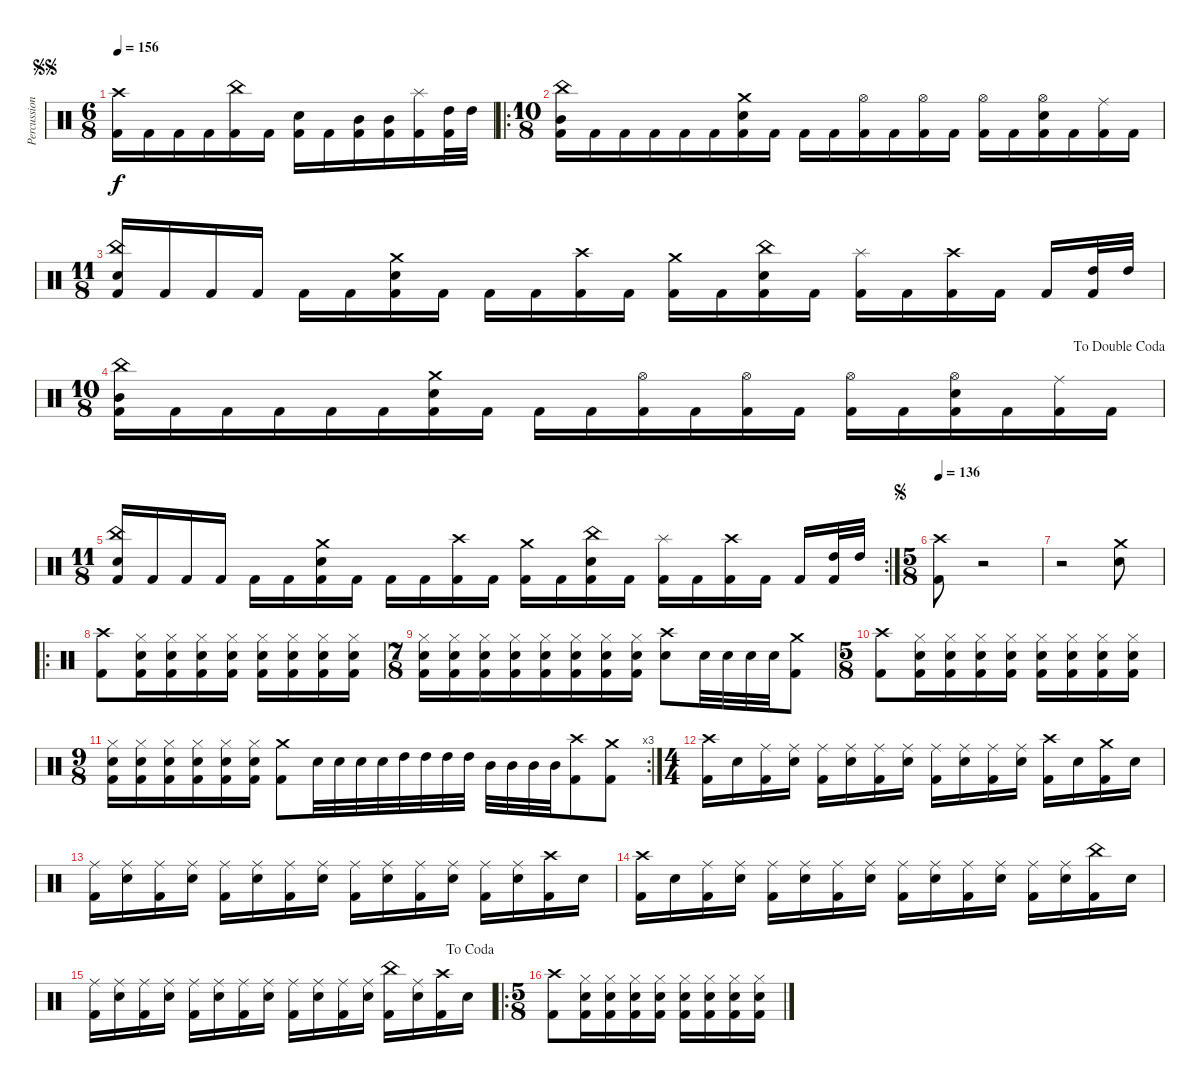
\track ("Percussion" "Percussion") {instrument percussion}
\staff {score}
\articulation defaults
\ts (6 8)
\jump segnosegno
\tempo 156
\clef neutral
\ks c
("Crash high (hit)" "Kick (hit) 2").16{dy f} "Kick (hit) 2".16 "Kick (hit) 2".16 "Kick (hit) 2".16 ("China (hit)" "Kick (hit) 2").16 "Kick (hit) 2".16 ("Electric Snare (hit)" "Kick (hit) 2").16 "Kick (hit) 2".16 ("Mid Tom (hit)" "Kick (hit) 2").16 ("Mid Tom (hit)" "Kick (hit) 2").16 ("Splash (hit)" "Kick (hit) 2").16 ("High Tom (hit)" "Kick (hit) 2").32 "High Tom (hit)".32 |
\ro
\ts (10 8)
("China (hit)" "Mid Tom (hit)" "Kick (hit) 2").16 "Kick (hit) 2".16 "Kick (hit) 2".16 "Kick (hit) 2".16 "Kick (hit) 2".16 "Kick (hit) 2".16 ("Crash medium (hit)" "Electric Snare (hit)" "Kick (hit) 2").16 "Kick (hit) 2".16 "Kick (hit) 2".16 "Kick (hit) 2".16 ("Hi-Hat (open)" "Kick (hit) 2").16 "Kick (hit) 2".16 ("Hi-Hat (open)" "Kick (hit) 2").16 "Kick (hit) 2".16 ("Hi-Hat (open)" "Kick (hit) 2").16 "Kick (hit) 2".16 ("Hi-Hat (open)" "Electric Snare (hit)" "Kick (hit) 2").16 "Kick (hit) 2".16 ("Ride (middle)" "Kick (hit) 2").16 "Kick (hit) 2".16 |
\ts (11 8)
("China (hit)" "Electric Snare (hit)" "Kick (hit) 2").16 "Kick (hit) 2".16 "Kick (hit) 2".16 "Kick (hit) 2".16 "Kick (hit) 2".16 "Kick (hit) 2".16 ("Crash medium (hit)" "Electric Snare (hit)" "Kick (hit) 2").16 "Kick (hit) 2".16 "Kick (hit) 2".16 "Kick (hit) 2".16 ("Crash high (hit)" "Kick (hit) 2").16 "Kick (hit) 2".16 ("Crash medium (hit)" "Kick (hit) 2").16 "Kick (hit) 2".16 ("China (hit)" "Electric Snare (hit)" "Kick (hit) 2").16 "Kick (hit) 2".16 ("Splash (hit)" "Kick (hit) 2").16 "Kick (hit) 2".16 ("Crash high (hit)" "Kick (hit) 2").16 "Kick (hit) 2".16 "Kick (hit) 2".16 ("High Tom (hit)" "Kick (hit) 2").32 "High Tom (hit)".32 |
\ts (10 8)
\jump dadoublecoda
("China (hit)" "Mid Tom (hit)" "Kick (hit) 2").16 "Kick (hit) 2".16 "Kick (hit) 2".16 "Kick (hit) 2".16 "Kick (hit) 2".16 "Kick (hit) 2".16 ("Crash medium (hit)" "Electric Snare (hit)" "Kick (hit) 2").16 "Kick (hit) 2".16 "Kick (hit) 2".16 "Kick (hit) 2".16 ("Hi-Hat (open)" "Kick (hit) 2").16 "Kick (hit) 2".16 ("Hi-Hat (open)" "Kick (hit) 2").16 "Kick (hit) 2".16 ("Hi-Hat (open)" "Kick (hit) 2").16 "Kick (hit) 2".16 ("Hi-Hat (open)" "Electric Snare (hit)" "Kick (hit) 2").16 "Kick (hit) 2".16 ("Ride (middle)" "Kick (hit) 2").16 "Kick (hit) 2".16 |
\rc 2
\ts (11 8)
("China (hit)" "Electric Snare (hit)" "Kick (hit) 2").16 "Kick (hit) 2".16 "Kick (hit) 2".16 "Kick (hit) 2".16 "Kick (hit) 2".16 "Kick (hit) 2".16 ("Crash medium (hit)" "Electric Snare (hit)" "Kick (hit) 2").16 "Kick (hit) 2".16 "Kick (hit) 2".16 "Kick (hit) 2".16 ("Crash high (hit)" "Kick (hit) 2").16 "Kick (hit) 2".16 ("Crash medium (hit)" "Kick (hit) 2").16 "Kick (hit) 2".16 ("China (hit)" "Electric Snare (hit)" "Kick (hit) 2").16 "Kick (hit) 2".16 ("Splash (hit)" "Kick (hit) 2").16 "Kick (hit) 2".16 ("Crash high (hit)" "Kick (hit) 2").16 "Kick (hit) 2".16 "Kick (hit) 2".16 ("High Tom (hit)" "Kick (hit) 2").32 "High Tom (hit)".32 |
\ts (5 8)
\jump segno
\tempo 136
("Crash high (hit)" "Kick (hit) 2").8 r.2 |
r.2 ("Crash medium (hit)" "Electric Snare (hit)").8 |
\ro
("Crash high (hit)" "Kick (hit) 2").8 ("Hi-Hat (closed)" "Electric Snare (hit)" "Kick (hit) 2").16 ("Hi-Hat (closed)" "Electric Snare (hit)" "Kick (hit) 2").16 ("Hi-Hat (closed)" "Electric Snare (hit)" "Kick (hit) 2").16 ("Hi-Hat (closed)" "Electric Snare (hit)" "Kick (hit) 2").16 ("Hi-Hat (closed)" "Electric Snare (hit)" "Kick (hit) 2").16 ("Hi-Hat (closed)" "Electric Snare (hit)" "Kick (hit) 2").16 ("Hi-Hat (closed)" "Electric Snare (hit)" "Kick (hit) 2").16 ("Hi-Hat (closed)" "Electric Snare (hit)" "Kick (hit) 2").16 |
\ts (7 8)
("Hi-Hat (closed)" "Electric Snare (hit)" "Kick (hit) 2").16 ("Hi-Hat (closed)" "Electric Snare (hit)" "Kick (hit) 2").16 ("Hi-Hat (closed)" "Electric Snare (hit)" "Kick (hit) 2").16 ("Hi-Hat (closed)" "Electric Snare (hit)" "Kick (hit) 2").16 ("Hi-Hat (closed)" "Electric Snare (hit)" "Kick (hit) 2").16 ("Hi-Hat (closed)" "Electric Snare (hit)" "Kick (hit) 2").16 ("Hi-Hat (closed)" "Electric Snare (hit)" "Kick (hit) 2").16 ("Hi-Hat (closed)" "Electric Snare (hit)" "Kick (hit) 2").16 ("Crash high (hit)" "Electric Snare (hit)").8 "Electric Snare (hit)".32 "Electric Snare (hit)".32 "Electric Snare (hit)".32 "Electric Snare (hit)".32 ("Crash medium (hit)" "Kick (hit) 2").8 |
\ts (5 8)
("Crash high (hit)" "Kick (hit) 2").8 ("Hi-Hat (closed)" "Electric Snare (hit)" "Kick (hit) 2").16 ("Hi-Hat (closed)" "Electric Snare (hit)" "Kick (hit) 2").16 ("Hi-Hat (closed)" "Electric Snare (hit)" "Kick (hit) 2").16 ("Hi-Hat (closed)" "Electric Snare (hit)" "Kick (hit) 2").16 ("Hi-Hat (closed)" "Electric Snare (hit)" "Kick (hit) 2").16 ("Hi-Hat (closed)" "Electric Snare (hit)" "Kick (hit) 2").16 ("Hi-Hat (closed)" "Electric Snare (hit)" "Kick (hit) 2").16 ("Hi-Hat (closed)" "Electric Snare (hit)" "Kick (hit) 2").16 |
\rc 3
\ts (9 8)
("Hi-Hat (closed)" "Electric Snare (hit)" "Kick (hit) 2").16 ("Hi-Hat (closed)" "Electric Snare (hit)" "Kick (hit) 2").16 ("Hi-Hat (closed)" "Electric Snare (hit)" "Kick (hit) 2").16 ("Hi-Hat (closed)" "Electric Snare (hit)" "Kick (hit) 2").16 ("Hi-Hat (closed)" "Electric Snare (hit)" "Kick (hit) 2").16 ("Hi-Hat (closed)" "Electric Snare (hit)" "Kick (hit) 2").16 ("Crash medium (hit)" "Kick (hit) 2").8 "Electric Snare (hit)".32 "Electric Snare (hit)".32 "Electric Snare (hit)".32 "Electric Snare (hit)".32 "High Tom (hit)".32 "High Tom (hit)".32 "High Tom (hit)".32 "High Tom (hit)".32 "Mid Tom (hit)".32 "Mid Tom (hit)".32 "Mid Tom (hit)".32 "Mid Tom (hit)".32 ("Crash high (hit)" "Kick (hit) 2").8 ("Crash medium (hit)" "Kick (hit) 2").8 |
\ts (4 4)
("Crash high (hit)" "Kick (hit) 2").16 "Electric Snare (hit)".16 ("Ride (middle)" "Kick (hit) 2").16 ("Ride (middle)" "Electric Snare (hit)").16 ("Ride (middle)" "Kick (hit) 2").16 ("Ride (middle)" "Electric Snare (hit)").16 ("Ride (middle)" "Kick (hit) 2").16 ("Ride (middle)" "Electric Snare (hit)").16 ("Ride (middle)" "Kick (hit) 2").16 ("Ride (middle)" "Electric Snare (hit)").16 ("Ride (middle)" "Kick (hit) 2").16 ("Ride (middle)" "Electric Snare (hit)").16 ("Crash high (hit)" "Kick (hit) 2").16 "Electric Snare (hit)".16 ("Crash medium (hit)" "Kick (hit) 2").16 "Electric Snare (hit)".16 |
("Ride (middle)" "Kick (hit) 2").16 ("Ride (middle)" "Electric Snare (hit)").16 ("Ride (middle)" "Kick (hit) 2").16 ("Ride (middle)" "Electric Snare (hit)").16 ("Ride (middle)" "Kick (hit) 2").16 ("Ride (middle)" "Electric Snare (hit)").16 ("Ride (middle)" "Kick (hit) 2").16 ("Ride (middle)" "Electric Snare (hit)").16 ("Ride (middle)" "Kick (hit) 2").16 ("Ride (middle)" "Electric Snare (hit)").16 ("Ride (middle)" "Kick (hit) 2").16 ("Ride (middle)" "Electric Snare (hit)").16 ("Ride (middle)" "Kick (hit) 2").16 ("Ride (middle)" "Electric Snare (hit)").16 ("Crash high (hit)" "Kick (hit) 2").16 "Electric Snare (hit)".16 |
("Crash high (hit)" "Kick (hit) 2").16 "Electric Snare (hit)".16 ("Ride (middle)" "Kick (hit) 2").16 ("Ride (middle)" "Electric Snare (hit)").16 ("Ride (middle)" "Kick (hit) 2").16 ("Ride (middle)" "Electric Snare (hit)").16 ("Ride (middle)" "Kick (hit) 2").16 ("Ride (middle)" "Electric Snare (hit)").16 ("Ride (middle)" "Kick (hit) 2").16 ("Ride (middle)" "Electric Snare (hit)").16 ("Ride (middle)" "Kick (hit) 2").16 ("Ride (middle)" "Electric Snare (hit)").16 ("Ride (middle)" "Kick (hit) 2").16 ("Ride (middle)" "Electric Snare (hit)").16 ("China (hit)" "Kick (hit) 2").16 "Electric Snare (hit)".16 |
\jump dacoda
("Ride (middle)" "Kick (hit) 2").16 ("Ride (middle)" "Electric Snare (hit)").16 ("Ride (middle)" "Kick (hit) 2").16 ("Ride (middle)" "Electric Snare (hit)").16 ("Ride (middle)" "Kick (hit) 2").16 ("Ride (middle)" "Electric Snare (hit)").16 ("Ride (middle)" "Kick (hit) 2").16 ("Ride (middle)" "Electric Snare (hit)").16 ("Ride (middle)" "Kick (hit) 2").16 ("Ride (middle)" "Electric Snare (hit)").16 ("Ride (middle)" "Kick (hit) 2").16 ("Ride (middle)" "Electric Snare (hit)").16 ("China (hit)" "Kick (hit) 2").16 ("Ride (middle)" "Electric Snare (hit)").16 ("Crash high (hit)" "Kick (hit) 2").16 "Electric Snare (hit)".16 |
\ro
\ts (5 8)
("Crash high (hit)" "Kick (hit) 2").8 ("Hi-Hat (closed)" "Electric Snare (hit)" "Kick (hit) 2").16 ("Hi-Hat (closed)" "Electric Snare (hit)" "Kick (hit) 2").16 ("Hi-Hat (closed)" "Electric Snare (hit)" "Kick (hit) 2").16 ("Hi-Hat (closed)" "Electric Snare (hit)" "Kick (hit) 2").16 ("Hi-Hat (closed)" "Electric Snare (hit)" "Kick (hit) 2").16 ("Hi-Hat (closed)" "Electric Snare (hit)" "Kick (hit) 2").16 ("Hi-Hat (closed)" "Electric Snare (hit)" "Kick (hit) 2").16 ("Hi-Hat (closed)" "Electric Snare (hit)" "Kick (hit) 2").16
